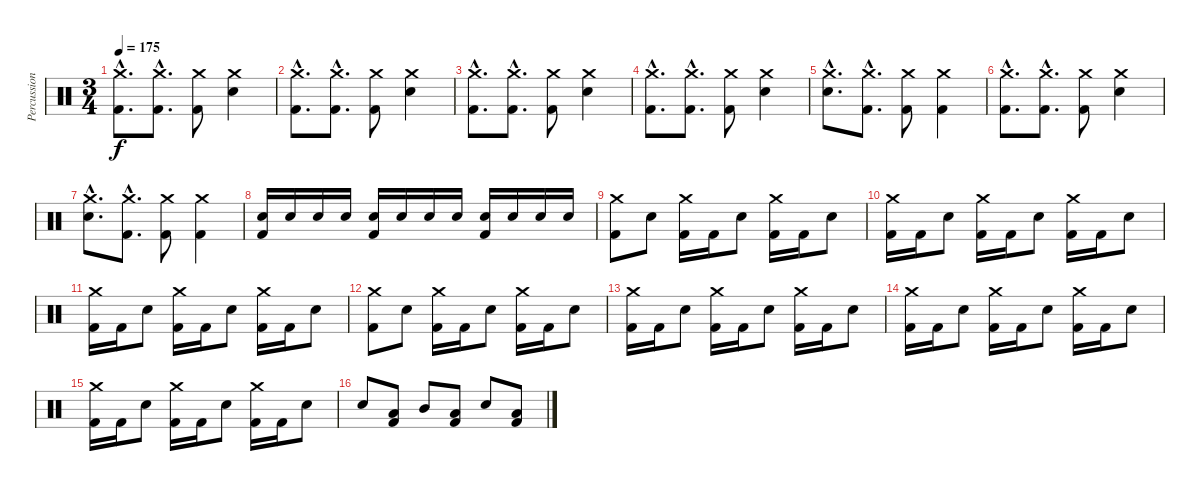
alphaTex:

\track ("Percussion" "Percussion") {instrument percussion}
\staff {score}
\articulation defaults
\ts (3 4)
\tempo 175
\clef neutral
\ks c
("Kick (hit) 2"{hac} "Crash medium (hit)"{hac}).8{d dy f} ("Kick (hit) 2"{hac} "Crash medium (hit)"{hac}).8{d} ("Kick (hit) 2" "Crash medium (hit)").8 ("Electric Snare (hit)" "Crash medium (hit)").4 |
("Kick (hit) 2"{hac} "Crash medium (hit)"{hac}).8{d} ("Kick (hit) 2"{hac} "Crash medium (hit)"{hac}).8{d} ("Kick (hit) 2" "Crash medium (hit)").8 ("Electric Snare (hit)" "Crash medium (hit)").4 |
("Kick (hit) 2"{hac} "Crash medium (hit)"{hac}).8{d} ("Kick (hit) 2"{hac} "Crash medium (hit)"{hac}).8{d} ("Kick (hit) 2" "Crash medium (hit)").8 ("Electric Snare (hit)" "Crash medium (hit)").4 |
("Kick (hit) 2"{hac} "Crash medium (hit)"{hac}).8{d} ("Kick (hit) 2"{hac} "Crash medium (hit)"{hac}).8{d} ("Kick (hit) 2" "Crash medium (hit)").8 ("Electric Snare (hit)" "Crash medium (hit)").4 |
("Electric Snare (hit)"{hac} "Crash medium (hit)"{hac}).8{d} ("Kick (hit) 2"{hac} "Crash medium (hit)"{hac}).8{d} ("Kick (hit) 2" "Crash medium (hit)").8 ("Kick (hit) 2" "Crash medium (hit)").4 |
("Kick (hit) 2"{hac} "Crash medium (hit)"{hac}).8{d} ("Kick (hit) 2"{hac} "Crash medium (hit)"{hac}).8{d} ("Kick (hit) 2" "Crash medium (hit)").8 ("Electric Snare (hit)" "Crash medium (hit)").4 |
("Electric Snare (hit)"{hac} "Crash medium (hit)"{hac}).8{d} ("Kick (hit) 2"{hac} "Crash medium (hit)"{hac}).8{d} ("Kick (hit) 2" "Crash medium (hit)").8 ("Kick (hit) 2" "Crash medium (hit)").4 |
("Electric Snare (hit)" "Kick (hit) 2").16 "Electric Snare (hit)".16 "Electric Snare (hit)".16 "Electric Snare (hit)".16 ("Electric Snare (hit)" "Kick (hit) 2").16 "Electric Snare (hit)".16 "Electric Snare (hit)".16 "Electric Snare (hit)".16 ("Electric Snare (hit)" "Kick (hit) 2").16 "Electric Snare (hit)".16 "Electric Snare (hit)".16 "Electric Snare (hit)".16 |
("Kick (hit) 2" "Crash medium (hit)").8 "Electric Snare (hit)".8 ("Kick (hit) 2" "Crash medium (hit)").16 "Kick (hit) 2".16 "Electric Snare (hit)".8 ("Kick (hit) 2" "Crash medium (hit)").16 "Kick (hit) 2".16 "Electric Snare (hit)".8 |
("Kick (hit) 2" "Crash medium (hit)").16 "Kick (hit) 2".16 "Electric Snare (hit)".8 ("Kick (hit) 2" "Crash medium (hit)").16 "Kick (hit) 2".16 "Electric Snare (hit)".8 ("Kick (hit) 2" "Crash medium (hit)").16 "Kick (hit) 2".16 "Electric Snare (hit)".8 |
("Kick (hit) 2" "Crash medium (hit)").16 "Kick (hit) 2".16 "Electric Snare (hit)".8 ("Kick (hit) 2" "Crash medium (hit)").16 "Kick (hit) 2".16 "Electric Snare (hit)".8 ("Kick (hit) 2" "Crash medium (hit)").16 "Kick (hit) 2".16 "Electric Snare (hit)".8 |
("Kick (hit) 2" "Crash medium (hit)").8 "Electric Snare (hit)".8 ("Kick (hit) 2" "Crash medium (hit)").16 "Kick (hit) 2".16 "Electric Snare (hit)".8 ("Kick (hit) 2" "Crash medium (hit)").16 "Kick (hit) 2".16 "Electric Snare (hit)".8 |
("Kick (hit) 2" "Crash medium (hit)").16 "Kick (hit) 2".16 "Electric Snare (hit)".8 ("Kick (hit) 2" "Crash medium (hit)").16 "Kick (hit) 2".16 "Electric Snare (hit)".8 ("Kick (hit) 2" "Crash medium (hit)").16 "Kick (hit) 2".16 "Electric Snare (hit)".8 |
("Kick (hit) 2" "Crash medium (hit)").16 "Kick (hit) 2".16 "Electric Snare (hit)".8 ("Kick (hit) 2" "Crash medium (hit)").16 "Kick (hit) 2".16 "Electric Snare (hit)".8 ("Kick (hit) 2" "Crash medium (hit)").16 "Kick (hit) 2".16 "Electric Snare (hit)".8 |
("Kick (hit) 2" "Crash medium (hit)").16 "Kick (hit) 2".16 "Electric Snare (hit)".8 ("Kick (hit) 2" "Crash medium (hit)").16 "Kick (hit) 2".16 "Electric Snare (hit)".8 ("Kick (hit) 2" "Crash medium (hit)").16 "Kick (hit) 2".16 "Electric Snare (hit)".8 |
"Electric Snare (hit)".8 ("Low Tom (hit)" "Kick (hit) 2").8 "Mid Tom (hit)".8 ("Low Tom (hit)" "Kick (hit) 2").8 "Electric Snare (hit)".8 ("Low Tom (hit)" "Kick (hit) 2").8
